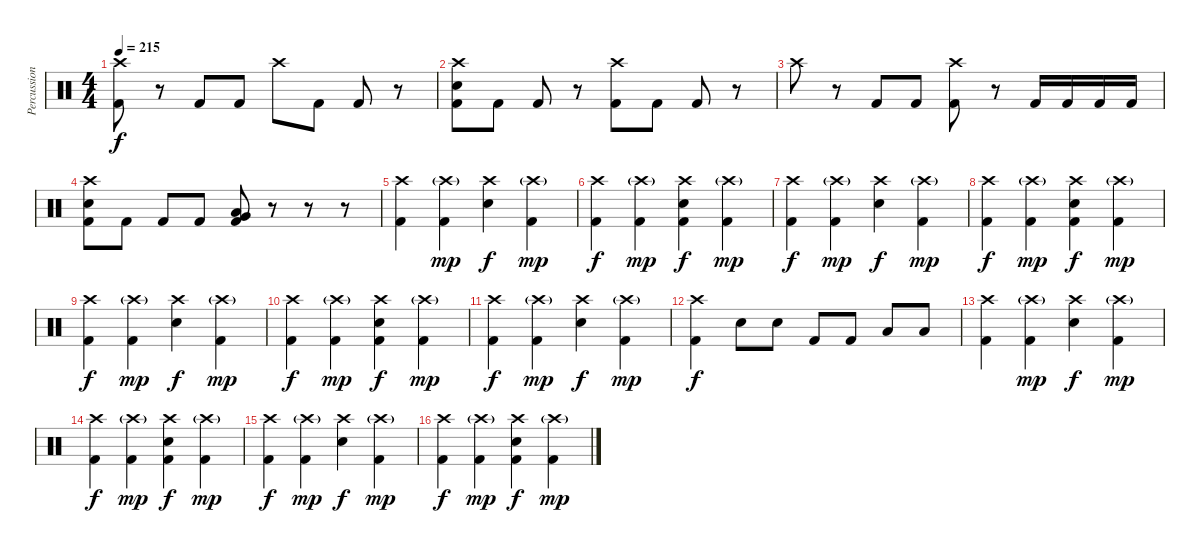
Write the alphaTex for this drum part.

\track ("Percussion" "Percussion") {instrument percussion}
\staff {score}
\articulation defaults
\ts (4 4)
\tempo 215
\clef neutral
\ks c
("Crash high (hit)" "Kick (hit) 2").8{dy f} r.8 "Kick (hit) 2".8 "Kick (hit) 2".8 "Crash high (hit)".8 "Kick (hit) 2".8 "Kick (hit) 2".8 r.8 |
("Crash high (hit)" "Electric Snare (hit)" "Kick (hit) 2").8 "Kick (hit) 2".8 "Kick (hit) 2".8 r.8 ("Crash high (hit)" "Kick (hit) 2").8 "Kick (hit) 2".8 "Kick (hit) 2".8 r.8 |
"Crash high (hit)".8 r.8 "Kick (hit) 2".8 "Kick (hit) 2".8 ("Crash high (hit)" "Kick (hit) 2").8 r.8 "Kick (hit) 2".16 "Kick (hit) 2".16 "Kick (hit) 2".16 "Kick (hit) 2".16 |
("Crash high (hit)" "Electric Snare (hit)" "Kick (hit) 2").8 "Kick (hit) 2".8 "Kick (hit) 2".8 "Kick (hit) 2".8 ("Very Low Tom (hit)" "Low Tom (hit)" "Kick (hit) 2").8{bd 60} r.8 r.8 r.8 |
("Crash high (hit)" "Kick (hit) 2").4 ("Crash high (hit)"{g} "Kick (hit) 2").4{dy mp} ("Crash high (hit)" "Electric Snare (hit)").4{dy f} ("Crash high (hit)"{g} "Kick (hit) 2").4{dy mp} |
("Crash high (hit)" "Kick (hit) 2").4{dy f} ("Crash high (hit)"{g} "Kick (hit) 2").4{dy mp} ("Crash high (hit)" "Electric Snare (hit)" "Kick (hit) 2").4{dy f} ("Crash high (hit)"{g} "Kick (hit) 2").4{dy mp} |
("Crash high (hit)" "Kick (hit) 2").4{dy f} ("Crash high (hit)"{g} "Kick (hit) 2").4{dy mp} ("Crash high (hit)" "Electric Snare (hit)").4{dy f} ("Crash high (hit)"{g} "Kick (hit) 2").4{dy mp} |
("Crash high (hit)" "Kick (hit) 2").4{dy f} ("Crash high (hit)"{g} "Kick (hit) 2").4{dy mp} ("Crash high (hit)" "Electric Snare (hit)" "Kick (hit) 2").4{dy f} ("Crash high (hit)"{g} "Kick (hit) 2").4{dy mp} |
("Crash high (hit)" "Kick (hit) 2").4{dy f} ("Crash high (hit)"{g} "Kick (hit) 2").4{dy mp} ("Crash high (hit)" "Electric Snare (hit)").4{dy f} ("Crash high (hit)"{g} "Kick (hit) 2").4{dy mp} |
("Crash high (hit)" "Kick (hit) 2").4{dy f} ("Crash high (hit)"{g} "Kick (hit) 2").4{dy mp} ("Crash high (hit)" "Electric Snare (hit)" "Kick (hit) 2").4{dy f} ("Crash high (hit)"{g} "Kick (hit) 2").4{dy mp} |
("Crash high (hit)" "Kick (hit) 2").4{dy f} ("Crash high (hit)"{g} "Kick (hit) 2").4{dy mp} ("Crash high (hit)" "Electric Snare (hit)").4{dy f} ("Crash high (hit)"{g} "Kick (hit) 2").4{dy mp} |
("Crash high (hit)" "Kick (hit) 2").4{dy f} "Electric Snare (hit)".8 "Electric Snare (hit)".8 "Kick (hit) 2".8 "Kick (hit) 2".8 "Low Tom (hit)".8 "Low Tom (hit)".8 |
("Crash high (hit)" "Kick (hit) 2").4 ("Crash high (hit)"{g} "Kick (hit) 2").4{dy mp} ("Crash high (hit)" "Electric Snare (hit)").4{dy f} ("Crash high (hit)"{g} "Kick (hit) 2").4{dy mp} |
("Crash high (hit)" "Kick (hit) 2").4{dy f} ("Crash high (hit)"{g} "Kick (hit) 2").4{dy mp} ("Crash high (hit)" "Electric Snare (hit)" "Kick (hit) 2").4{dy f} ("Crash high (hit)"{g} "Kick (hit) 2").4{dy mp} |
("Crash high (hit)" "Kick (hit) 2").4{dy f} ("Crash high (hit)"{g} "Kick (hit) 2").4{dy mp} ("Crash high (hit)" "Electric Snare (hit)").4{dy f} ("Crash high (hit)"{g} "Kick (hit) 2").4{dy mp} |
("Crash high (hit)" "Kick (hit) 2").4{dy f} ("Crash high (hit)"{g} "Kick (hit) 2").4{dy mp} ("Crash high (hit)" "Electric Snare (hit)" "Kick (hit) 2").4{dy f} ("Crash high (hit)"{g} "Kick (hit) 2").4{dy mp}
